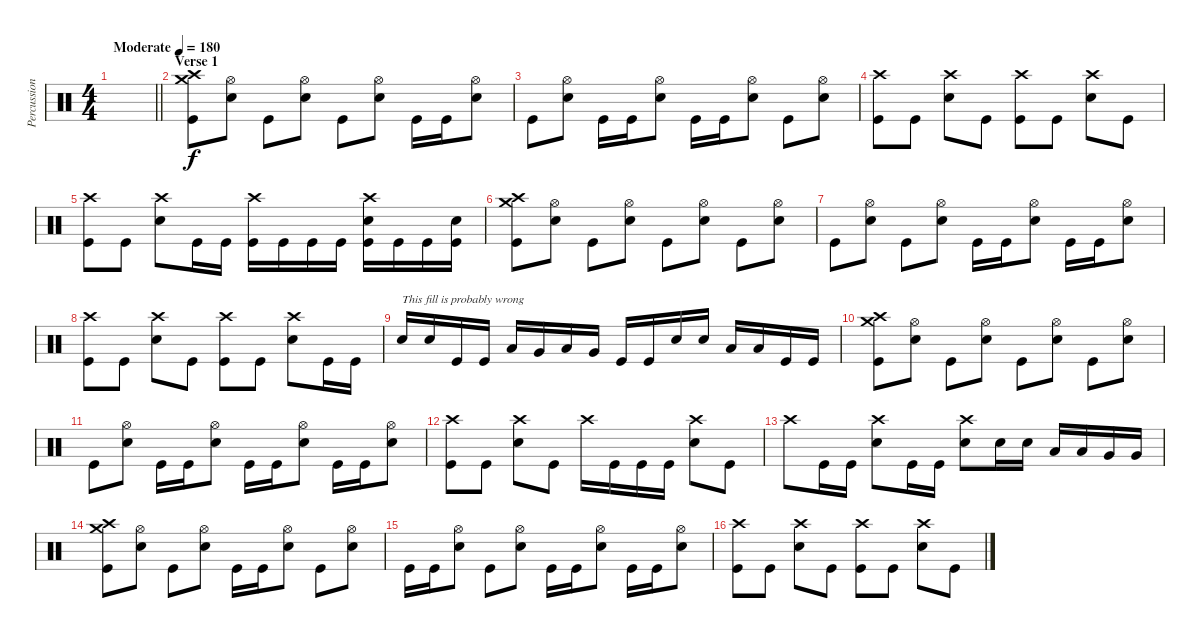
\track ("Percussion" "Percussion") {instrument percussion}
\staff {score}
\articulation defaults
\ts (4 4)
\tempo (180 "Moderate")
\clef neutral
\barLineRight lightlight
\ks c
|
\section ("" "Verse 1")
("Crash medium (hit)" "Crash high (hit)" "Kick (hit)").8 ("Hi-Hat (open)" "Electric Snare (hit)").8 "Kick (hit)".8 ("Hi-Hat (open)" "Electric Snare (hit)").8 "Kick (hit)".8 ("Hi-Hat (open)" "Electric Snare (hit)").8 "Kick (hit)".16 "Kick (hit)".16 ("Hi-Hat (open)" "Electric Snare (hit)").8 |
"Kick (hit)".8 ("Hi-Hat (open)" "Electric Snare (hit)").8 "Kick (hit)".16 "Kick (hit)".16 ("Hi-Hat (open)" "Electric Snare (hit)").8 "Kick (hit)".16 "Kick (hit)".16 ("Hi-Hat (open)" "Electric Snare (hit)").8 "Kick (hit)".8 ("Hi-Hat (open)" "Electric Snare (hit)").8 |
("Crash high (hit)" "Kick (hit)").8 "Kick (hit)".8 ("Crash high (hit)" "Electric Snare (hit)").8 "Kick (hit)".8 ("Crash high (hit)" "Kick (hit)").8 "Kick (hit)".8 ("Crash high (hit)" "Electric Snare (hit)").8 "Kick (hit)".8 |
("Crash high (hit)" "Kick (hit)").8 "Kick (hit)".8 ("Crash high (hit)" "Electric Snare (hit)").8 "Kick (hit)".16 "Kick (hit)".16 ("Crash high (hit)" "Kick (hit)").16 "Kick (hit)".16 "Kick (hit)".16 "Kick (hit)".16 ("Crash high (hit)" "Electric Snare (hit)" "Kick (hit)").16 "Kick (hit)".16 "Kick (hit)".16 ("Electric Snare (hit)" "Kick (hit)").16 |
("Crash medium (hit)" "Crash high (hit)" "Kick (hit)").8 ("Hi-Hat (open)" "Electric Snare (hit)").8 "Kick (hit)".8 ("Hi-Hat (open)" "Electric Snare (hit)").8 "Kick (hit)".8 ("Hi-Hat (open)" "Electric Snare (hit)").8 "Kick (hit)".8 ("Hi-Hat (open)" "Electric Snare (hit)").8 |
"Kick (hit)".8 ("Hi-Hat (open)" "Electric Snare (hit)").8 "Kick (hit)".8 ("Hi-Hat (open)" "Electric Snare (hit)").8 "Kick (hit)".16 "Kick (hit)".16 ("Hi-Hat (open)" "Electric Snare (hit)").8 "Kick (hit)".16 "Kick (hit)".16 ("Hi-Hat (open)" "Electric Snare (hit)").8 |
("Crash high (hit)" "Kick (hit)").8 "Kick (hit)".8 ("Crash high (hit)" "Electric Snare (hit)").8 "Kick (hit)".8 ("Crash high (hit)" "Kick (hit)").8 "Kick (hit)".8 ("Crash high (hit)" "Electric Snare (hit)").8 "Kick (hit)".16 "Kick (hit)".16 |
"Electric Snare (hit)".16{txt "This fill is probably wrong"} "Electric Snare (hit)".16 "Kick (hit)".16 "Kick (hit)".16 "Low Tom (hit)".16 "Very Low Tom (hit)".16 "Low Tom (hit)".16 "Very Low Tom (hit)".16 "Kick (hit)".16 "Kick (hit)".16 "Electric Snare (hit)".16 "Electric Snare (hit)".16 "Low Tom (hit)".16 "Low Tom (hit)".16 "Kick (hit)".16 "Kick (hit)".16 |
("Crash high (hit)" "Crash medium (hit)" "Kick (hit)").8 ("Hi-Hat (open)" "Electric Snare (hit)").8 "Kick (hit)".8 ("Hi-Hat (open)" "Electric Snare (hit)").8 "Kick (hit)".8 ("Hi-Hat (open)" "Electric Snare (hit)").8 "Kick (hit)".8 ("Hi-Hat (open)" "Electric Snare (hit)").8 |
"Kick (hit)".8 ("Hi-Hat (open)" "Electric Snare (hit)").8 "Kick (hit)".16 "Kick (hit)".16 ("Hi-Hat (open)" "Electric Snare (hit)").8 "Kick (hit)".16 "Kick (hit)".16 ("Hi-Hat (open)" "Electric Snare (hit)").8 "Kick (hit)".16 "Kick (hit)".16 ("Hi-Hat (open)" "Electric Snare (hit)").8 |
("Crash high (hit)" "Kick (hit)").8 "Kick (hit)".8 ("Crash high (hit)" "Electric Snare (hit)").8 "Kick (hit)".8 "Crash high (hit)".16 "Kick (hit)".16 "Kick (hit)".16 "Kick (hit)".16 ("Crash high (hit)" "Electric Snare (hit)").8 "Kick (hit)".8 |
"Crash high (hit)".8 "Kick (hit)".16 "Kick (hit)".16 ("Crash high (hit)" "Electric Snare (hit)").8 "Kick (hit)".16 "Kick (hit)".16 ("Crash high (hit)" "Electric Snare (hit)").8 "Electric Snare (hit)".16 "Electric Snare (hit)".16 "Low Tom (hit)".16 "Low Tom (hit)".16 "Very Low Tom (hit)".16 "Very Low Tom (hit)".16 |
("Crash medium (hit)" "Crash high (hit)" "Kick (hit)").8 ("Hi-Hat (open)" "Electric Snare (hit)").8 "Kick (hit)".8 ("Hi-Hat (open)" "Electric Snare (hit)").8 "Kick (hit)".16 "Kick (hit)".16 ("Hi-Hat (open)" "Electric Snare (hit)").8 "Kick (hit)".8 ("Hi-Hat (open)" "Electric Snare (hit)").8 |
"Kick (hit)".16 "Kick (hit)".16 ("Hi-Hat (open)" "Electric Snare (hit)").8 "Kick (hit)".8 ("Hi-Hat (open)" "Electric Snare (hit)").8 "Kick (hit)".16 "Kick (hit)".16 ("Hi-Hat (open)" "Electric Snare (hit)").8 "Kick (hit)".16 "Kick (hit)".16 ("Hi-Hat (open)" "Electric Snare (hit)").8 |
("Crash high (hit)" "Kick (hit)").8 "Kick (hit)".8 ("Crash high (hit)" "Electric Snare (hit)").8 "Kick (hit)".8 ("Crash high (hit)" "Kick (hit)").8 "Kick (hit)".8 ("Crash high (hit)" "Electric Snare (hit)").8 "Kick (hit)".8
